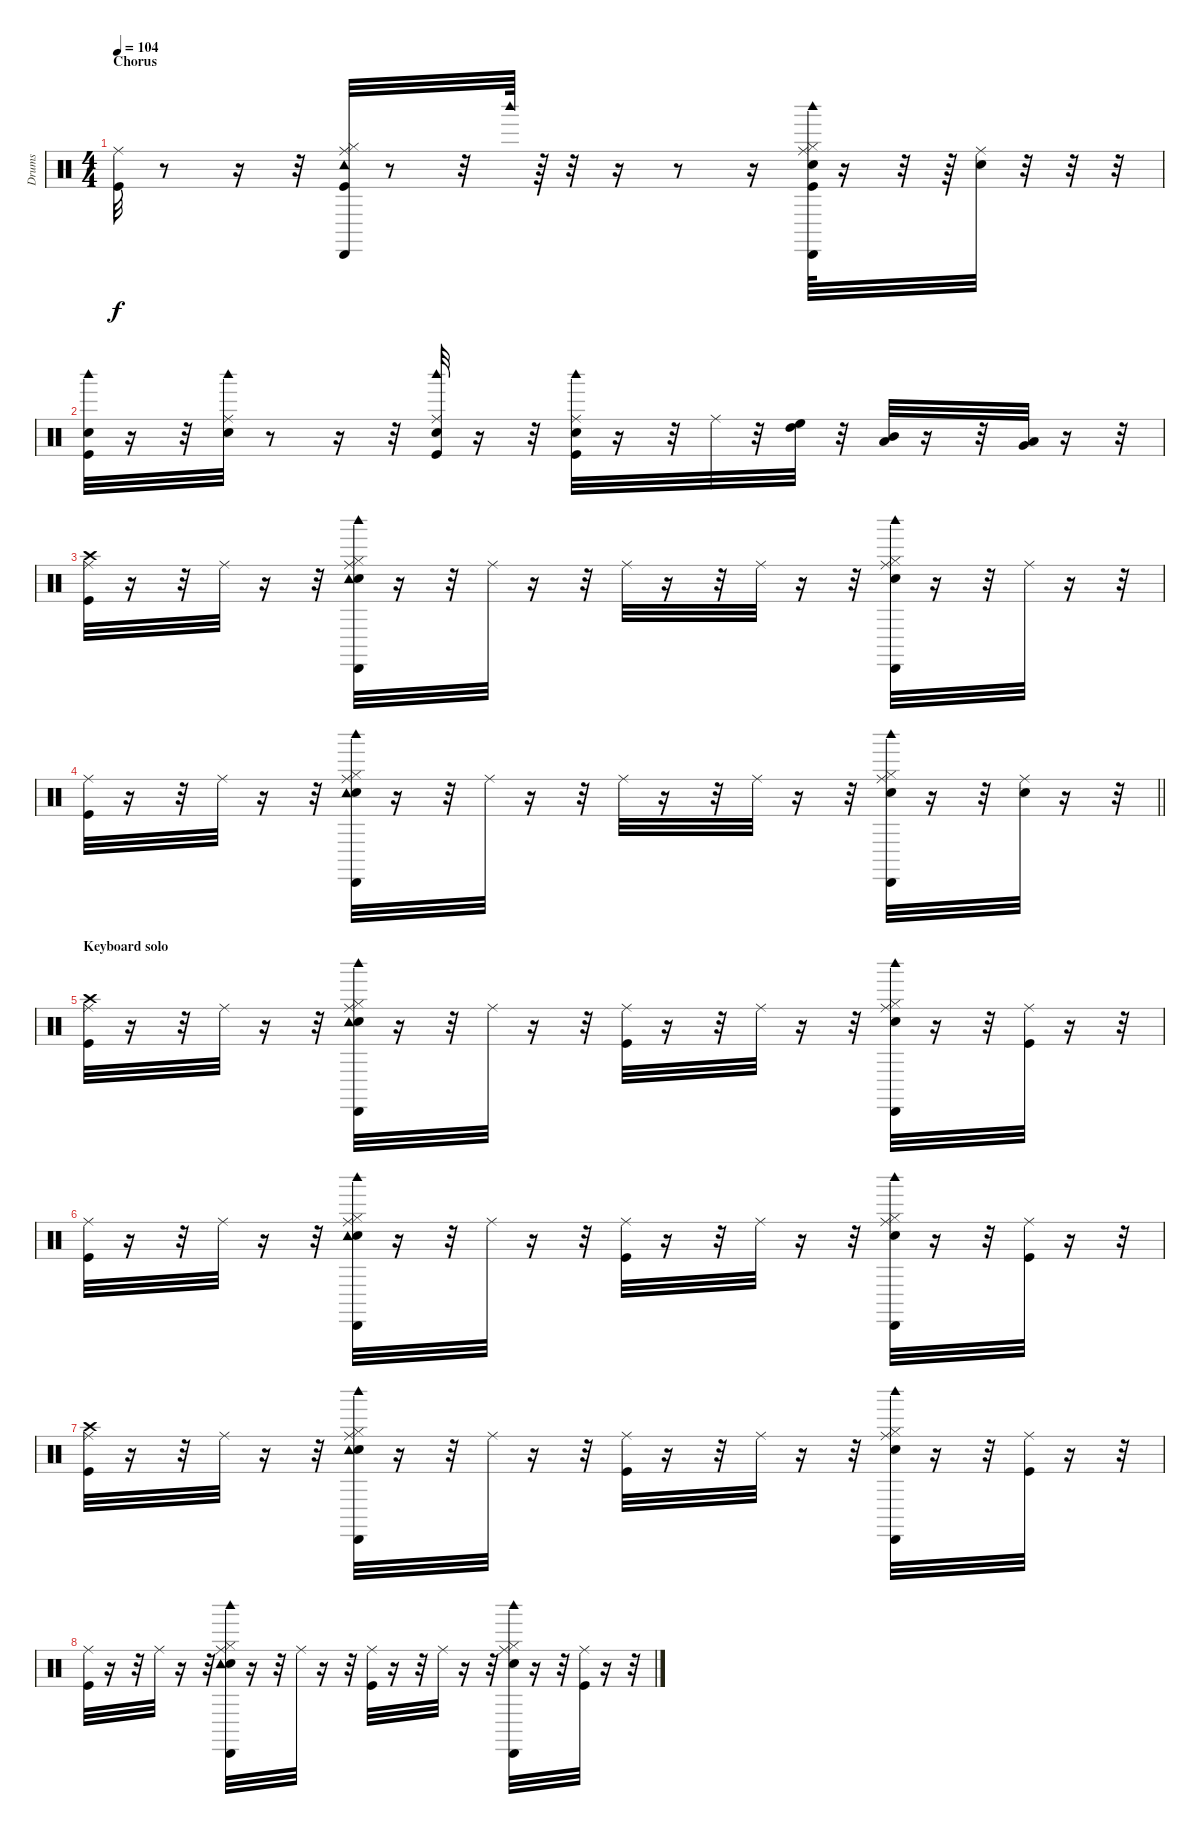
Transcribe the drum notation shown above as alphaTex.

\track ("Drums" "Drums") {instrument percussion}
\staff {score}
\articulation defaults
\ts (4 4)
\section ("" "Chorus")
\tempo 104
\clef neutral
\ks c
("Kick (hit)" "Ride (middle)").32{dy f} r.8 r.16 r.32 ("Kick (hit)" "Hi-Hat (closed)" "Ride (middle)" "Tambourine (hit)" "Cabasa (hit)").32 r.8 r.32 "Woodblock high (hit)".64 r.64 r.32 r.16 r.8 r.16 ("Kick (hit)" "Snare (hit) 2" "Hi-Hat (closed)" "Ride (middle)" "Cabasa (hit)" "Woodblock high (hit)").64 r.16 r.32 r.64 ("Snare (hit) 2" "Ride (middle)").32 r.32 r.32 r.32 |
("Kick (hit)" "Snare (hit) 2" "Woodblock high (hit)").32 r.16 r.32 ("Snare (hit) 2" "Ride (middle)" "Woodblock high (hit)").32 r.8 r.16 r.32 ("Kick (hit)" "Snare (hit) 2" "Ride (middle)" "Woodblock high (hit)").32 r.16 r.32 ("Kick (hit)" "Snare (hit) 2" "Ride (middle)" "Woodblock high (hit)").32 r.16 r.32 "Ride (middle)".32 r.32 ("High Tom (hit)" "High Floor Tom (hit)").32 r.32 ("Low Tom (hit)" "Mid Tom (hit)").32 r.16 r.32 ("Low Floor Tom (hit)" "Very Low Tom (hit)").32 r.16 r.32 |
("Kick (hit)" "Crash high (hit)" "Ride (middle)").32 r.16 r.32 "Ride (middle)".32 r.16 r.32 ("Snare (hit) 2" "Hi-Hat (closed)" "Ride (middle)" "Tambourine (hit)" "Cabasa (hit)" "Woodblock high (hit)").32 r.16 r.32 "Ride (middle)".32 r.16 r.32 "Ride (middle)".32 r.16 r.32 "Ride (middle)".32 r.16 r.32 ("Snare (hit) 2" "Hi-Hat (closed)" "Ride (middle)" "Cabasa (hit)" "Woodblock high (hit)").32 r.16 r.32 "Ride (middle)".32 r.16 r.32 |
\barLineRight lightlight
("Kick (hit)" "Ride (middle)").32 r.16 r.32 "Ride (middle)".32 r.16 r.32 ("Snare (hit) 2" "Hi-Hat (closed)" "Ride (middle)" "Tambourine (hit)" "Cabasa (hit)" "Woodblock high (hit)").32 r.16 r.32 "Ride (middle)".32 r.16 r.32 "Ride (middle)".32 r.16 r.32 "Ride (middle)".32 r.16 r.32 ("Snare (hit) 2" "Hi-Hat (closed)" "Ride (middle)" "Cabasa (hit)" "Woodblock high (hit)").32 r.16 r.32 ("Snare (hit) 2" "Ride (middle)").32 r.16 r.32 |
\section ("" "Keyboard solo")
("Kick (hit)" "Crash high (hit)" "Ride (middle)").32 r.16 r.32 "Ride (middle)".32 r.16 r.32 ("Snare (hit) 2" "Hi-Hat (closed)" "Ride (middle)" "Tambourine (hit)" "Cabasa (hit)" "Woodblock high (hit)").32 r.16 r.32 "Ride (middle)".32 r.16 r.32 ("Kick (hit)" "Ride (middle)").32 r.16 r.32 "Ride (middle)".32 r.16 r.32 ("Snare (hit) 2" "Hi-Hat (closed)" "Ride (middle)" "Cabasa (hit)" "Woodblock high (hit)").32 r.16 r.32 ("Kick (hit)" "Ride (middle)").32 r.16 r.32 |
("Kick (hit)" "Ride (middle)").32 r.16 r.32 "Ride (middle)".32 r.16 r.32 ("Snare (hit) 2" "Hi-Hat (closed)" "Ride (middle)" "Tambourine (hit)" "Cabasa (hit)" "Woodblock high (hit)").32 r.16 r.32 "Ride (middle)".32 r.16 r.32 ("Kick (hit)" "Ride (middle)").32 r.16 r.32 "Ride (middle)".32 r.16 r.32 ("Snare (hit) 2" "Hi-Hat (closed)" "Ride (middle)" "Cabasa (hit)" "Woodblock high (hit)").32 r.16 r.32 ("Kick (hit)" "Ride (middle)").32 r.16 r.32 |
("Kick (hit)" "Crash high (hit)" "Ride (middle)").32 r.16 r.32 "Ride (middle)".32 r.16 r.32 ("Snare (hit) 2" "Hi-Hat (closed)" "Ride (middle)" "Tambourine (hit)" "Cabasa (hit)" "Woodblock high (hit)").32 r.16 r.32 "Ride (middle)".32 r.16 r.32 ("Kick (hit)" "Ride (middle)").32 r.16 r.32 "Ride (middle)".32 r.16 r.32 ("Snare (hit) 2" "Hi-Hat (closed)" "Ride (middle)" "Cabasa (hit)" "Woodblock high (hit)").32 r.16 r.32 ("Kick (hit)" "Ride (middle)").32 r.16 r.32 |
("Kick (hit)" "Ride (middle)").32 r.16 r.32 "Ride (middle)".32 r.16 r.32 ("Snare (hit) 2" "Hi-Hat (closed)" "Ride (middle)" "Tambourine (hit)" "Cabasa (hit)" "Woodblock high (hit)").32 r.16 r.32 "Ride (middle)".32 r.16 r.32 ("Kick (hit)" "Ride (middle)").32 r.16 r.32 "Ride (middle)".32 r.16 r.32 ("Snare (hit) 2" "Hi-Hat (closed)" "Ride (middle)" "Cabasa (hit)" "Woodblock high (hit)").32 r.16 r.32 ("Kick (hit)" "Ride (middle)").32 r.16 r.32
